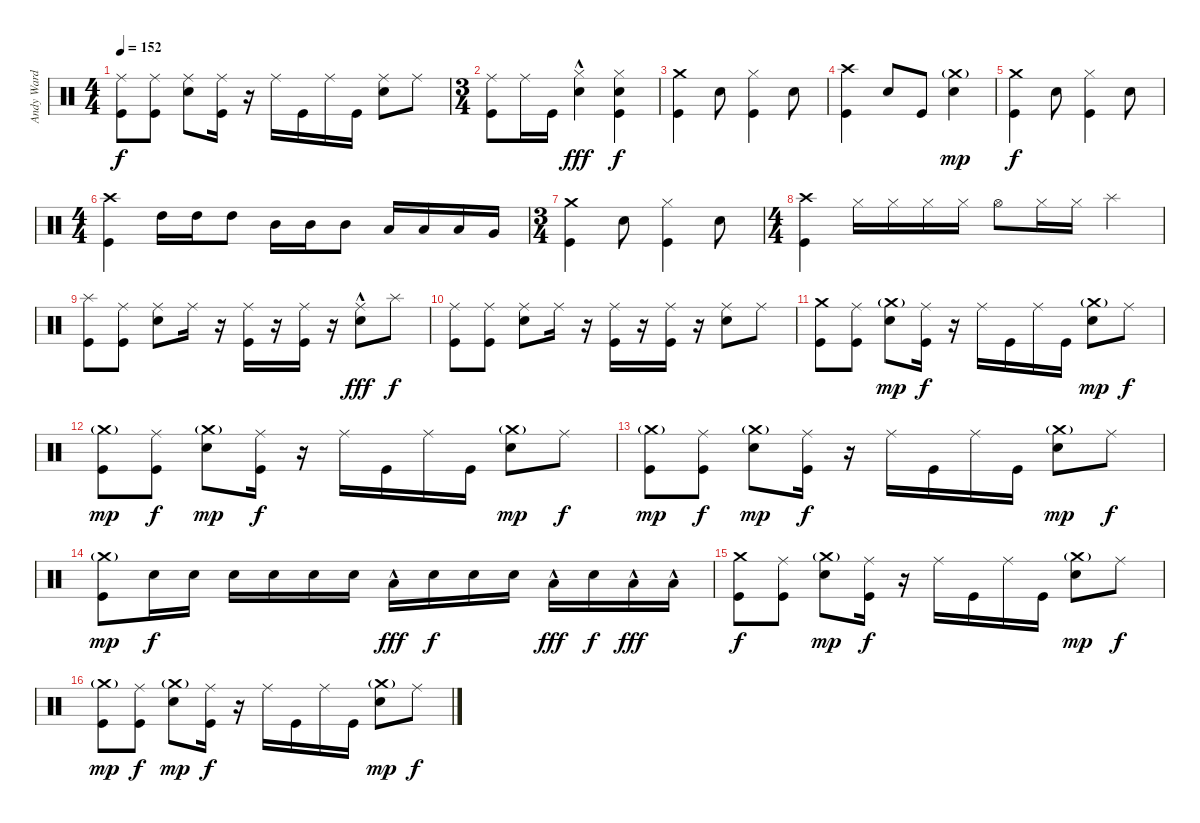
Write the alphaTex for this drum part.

\track ("Andy Ward (Drums)" "Andy Ward ") {instrument percussion}
\staff {score}
\articulation defaults
\ts (4 4)
\tempo 152
\clef neutral
\ks c
("Ride (middle)" "Kick (hit)").8{dy f} ("Ride (middle)" "Kick (hit)").8 ("Ride (middle)" "Electric Snare (hit)").8 ("Ride (middle)" "Kick (hit)").16 r.16 "Ride (middle)".16 "Kick (hit)".16 "Ride (middle)".16 "Kick (hit)".16 ("Ride (middle)" "Electric Snare (hit)").8 "Ride (middle)".8 |
\ts (3 4)
("Ride (middle)" "Kick (hit)").8 "Ride (middle)".16 "Kick (hit)".16 ("Hi-Hat (closed)" "Electric Snare (hit)"{hac}).4{dy fff} ("Hi-Hat (closed)" "Electric Snare (hit)" "Kick (hit)").4{dy f} |
("Crash medium (hit)" "Kick (hit)").4 "Electric Snare (hit)".8 ("Hi-Hat (closed)" "Kick (hit)").4 "Electric Snare (hit)".8 |
("Crash high (hit)" "Kick (hit)").4 "Electric Snare (hit)".8 "Kick (hit)".8 ("Crash medium (hit)"{g} "Electric Snare (hit)").4{dy mp} |
("Crash medium (hit)" "Kick (hit)").4{dy f} "Electric Snare (hit)".8 ("Hi-Hat (closed)" "Kick (hit)").4 "Electric Snare (hit)".8 |
\ts (4 4)
("Crash high (hit)" "Kick (hit)").4 "High Tom (hit)".16 "High Tom (hit)".16 "High Tom (hit)".8 "Mid Tom (hit)".16 "Mid Tom (hit)".16 "Mid Tom (hit)".8 "Low Tom (hit)".16 "Low Tom (hit)".16 "Low Tom (hit)".16 "Very Low Tom (hit)".16 |
\ts (3 4)
("Crash medium (hit)" "Kick (hit)").4 "Electric Snare (hit)".8 ("Hi-Hat (closed)" "Kick (hit)").4 "Electric Snare (hit)".8 |
\ts (4 4)
("Crash high (hit)" "Kick (hit)").4 "Hi-Hat (closed)".16 "Hi-Hat (closed)".16 "Hi-Hat (closed)".16 "Hi-Hat (closed)".16 "Hi-Hat (open)".8 "Hi-Hat (closed)".16 "Hi-Hat (closed)".16 "Splash (hit)".4 |
("Splash (hit)" "Kick (hit)").8 ("Ride (middle)" "Kick (hit)").8 ("Ride (middle)" "Electric Snare (hit)").8 "Ride (middle)".16 r.16 ("Ride (middle)" "Kick (hit)").16 r.16 ("Ride (middle)" "Kick (hit)").16 r.16 ("Ride (middle)"{hac} "Electric Snare (hit)").8{dy fff} "Splash (hit)".8{dy f} |
("Ride (middle)" "Kick (hit)").8 ("Ride (middle)" "Kick (hit)").8 ("Ride (middle)" "Electric Snare (hit)").8 "Ride (middle)".16 r.16 ("Ride (middle)" "Kick (hit)").16 r.16 ("Ride (middle)" "Kick (hit)").16 r.16 ("Ride (middle)" "Electric Snare (hit)").8 "Ride (middle)".8 |
("Crash medium (hit)" "Kick (hit)").8 ("Ride (middle)" "Kick (hit)").8 ("Crash medium (hit)"{g} "Electric Snare (hit)").8{dy mp} ("Ride (middle)" "Kick (hit)").16{dy f} r.16 "Ride (middle)".16 "Kick (hit)".16 "Ride (middle)".16 "Kick (hit)".16 ("Crash medium (hit)"{g} "Electric Snare (hit)").8{dy mp} "Ride (middle)".8{dy f} |
("Crash medium (hit)"{g} "Kick (hit)").8{dy mp} ("Ride (middle)" "Kick (hit)").8{dy f} ("Crash medium (hit)"{g} "Electric Snare (hit)").8{dy mp} ("Ride (middle)" "Kick (hit)").16{dy f} r.16 "Ride (middle)".16 "Kick (hit)".16 "Ride (middle)".16 "Kick (hit)".16 ("Crash medium (hit)"{g} "Electric Snare (hit)").8{dy mp} "Ride (middle)".8{dy f} |
("Crash medium (hit)"{g} "Kick (hit)").8{dy mp} ("Ride (middle)" "Kick (hit)").8{dy f} ("Crash medium (hit)"{g} "Electric Snare (hit)").8{dy mp} ("Ride (middle)" "Kick (hit)").16{dy f} r.16 "Ride (middle)".16 "Kick (hit)".16 "Ride (middle)".16 "Kick (hit)".16 ("Crash medium (hit)"{g} "Electric Snare (hit)").8{dy mp} "Ride (middle)".8{dy f} |
("Crash medium (hit)"{g} "Kick (hit)").8{dy mp} "Electric Snare (hit)".16{dy f} "Electric Snare (hit)".16 "Electric Snare (hit)".16 "Electric Snare (hit)".16 "Electric Snare (hit)".16 "Electric Snare (hit)".16 "Low Tom (hit)"{hac}.16{dy fff} "Electric Snare (hit)".16{dy f} "Electric Snare (hit)".16 "Electric Snare (hit)".16 "Low Tom (hit)"{hac}.16{dy fff} "Electric Snare (hit)".16{dy f} "Low Tom (hit)"{hac}.16{dy fff} "Low Tom (hit)"{hac}.16 |
("Crash medium (hit)" "Kick (hit)").8{dy f} ("Ride (middle)" "Kick (hit)").8 ("Crash medium (hit)"{g} "Electric Snare (hit)").8{dy mp} ("Ride (middle)" "Kick (hit)").16{dy f} r.16 "Ride (middle)".16 "Kick (hit)".16 "Ride (middle)".16 "Kick (hit)".16 ("Crash medium (hit)"{g} "Electric Snare (hit)").8{dy mp} "Ride (middle)".8{dy f} |
("Crash medium (hit)"{g} "Kick (hit)").8{dy mp} ("Ride (middle)" "Kick (hit)").8{dy f} ("Crash medium (hit)"{g} "Electric Snare (hit)").8{dy mp} ("Ride (middle)" "Kick (hit)").16{dy f} r.16 "Ride (middle)".16 "Kick (hit)".16 "Ride (middle)".16 "Kick (hit)".16 ("Crash medium (hit)"{g} "Electric Snare (hit)").8{dy mp} "Ride (middle)".8{dy f}
